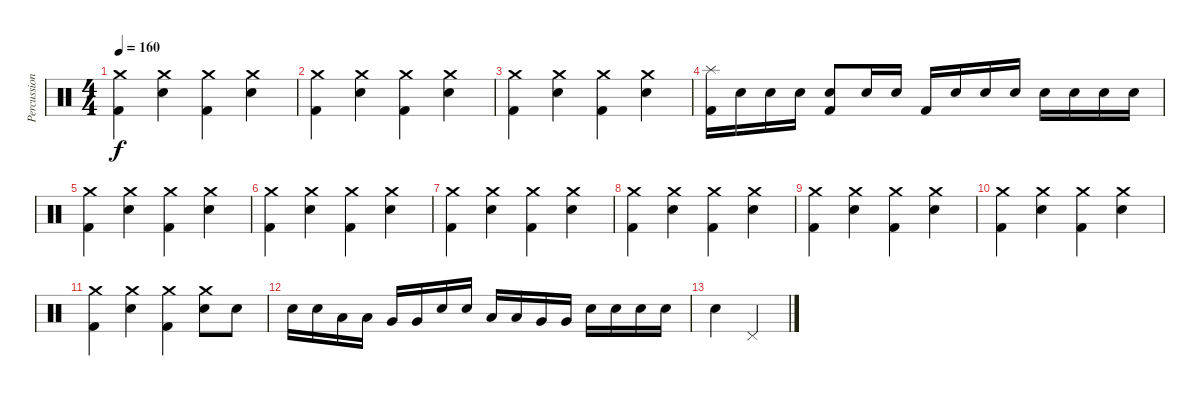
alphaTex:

\track ("Percussion" "Percussion") {instrument percussion}
\staff {score}
\articulation defaults
\ts (4 4)
\tempo 160
\clef neutral
\ks c
("Crash medium (hit)" "Kick (hit) 2").4{dy f} ("Crash medium (hit)" "Electric Snare (hit)").4 ("Crash medium (hit)" "Kick (hit) 2").4 ("Crash medium (hit)" "Electric Snare (hit)").4 |
("Crash medium (hit)" "Kick (hit) 2").4 ("Crash medium (hit)" "Electric Snare (hit)").4 ("Crash medium (hit)" "Kick (hit) 2").4 ("Crash medium (hit)" "Electric Snare (hit)").4 |
("Crash medium (hit)" "Kick (hit) 2").4 ("Crash medium (hit)" "Electric Snare (hit)").4 ("Crash medium (hit)" "Kick (hit) 2").4 ("Crash medium (hit)" "Electric Snare (hit)").4 |
("Splash (hit)" "Kick (hit) 2").16 "Electric Snare (hit)".16 "Electric Snare (hit)".16 "Electric Snare (hit)".16 ("Electric Snare (hit)" "Kick (hit) 2").8 "Electric Snare (hit)".16 "Electric Snare (hit)".16 "Kick (hit) 2".16 "Electric Snare (hit)".16 "Electric Snare (hit)".16 "Electric Snare (hit)".16 "Electric Snare (hit)".16 "Electric Snare (hit)".16 "Electric Snare (hit)".16 "Electric Snare (hit)".16 |
("Crash medium (hit)" "Kick (hit) 2").4 ("Crash medium (hit)" "Electric Snare (hit)").4 ("Crash medium (hit)" "Kick (hit) 2").4 ("Crash medium (hit)" "Electric Snare (hit)").4 |
("Crash medium (hit)" "Kick (hit) 2").4 ("Crash medium (hit)" "Electric Snare (hit)").4 ("Crash medium (hit)" "Kick (hit) 2").4 ("Crash medium (hit)" "Electric Snare (hit)").4 |
("Crash medium (hit)" "Kick (hit) 2").4 ("Crash medium (hit)" "Electric Snare (hit)").4 ("Crash medium (hit)" "Kick (hit) 2").4 ("Crash medium (hit)" "Electric Snare (hit)").4 |
("Crash medium (hit)" "Kick (hit) 2").4 ("Crash medium (hit)" "Electric Snare (hit)").4 ("Crash medium (hit)" "Kick (hit) 2").4 ("Crash medium (hit)" "Electric Snare (hit)").4 |
("Crash medium (hit)" "Kick (hit) 2").4 ("Crash medium (hit)" "Electric Snare (hit)").4 ("Crash medium (hit)" "Kick (hit) 2").4 ("Crash medium (hit)" "Electric Snare (hit)").4 |
("Crash medium (hit)" "Kick (hit) 2").4 ("Crash medium (hit)" "Electric Snare (hit)").4 ("Crash medium (hit)" "Kick (hit) 2").4 ("Crash medium (hit)" "Electric Snare (hit)").4 |
("Crash medium (hit)" "Kick (hit) 2").4 ("Crash medium (hit)" "Electric Snare (hit)").4 ("Crash medium (hit)" "Kick (hit) 2").4 ("Crash medium (hit)" "Electric Snare (hit)").8 "Electric Snare (hit)".8 |
"Electric Snare (hit)".16 "Electric Snare (hit)".16 "Low Tom (hit)".16 "Low Tom (hit)".16 "Very Low Tom (hit)".16 "Very Low Tom (hit)".16 "Electric Snare (hit)".16 "Electric Snare (hit)".16 "Low Tom (hit)".16 "Low Tom (hit)".16 "Very Low Tom (hit)".16 "Very Low Tom (hit)".16 "Electric Snare (hit)".16 "Electric Snare (hit)".16 "Electric Snare (hit)".16 "Electric Snare (hit)".16 |
"Electric Snare (hit)".4 "Pedal Hi-Hat (hit)".4
